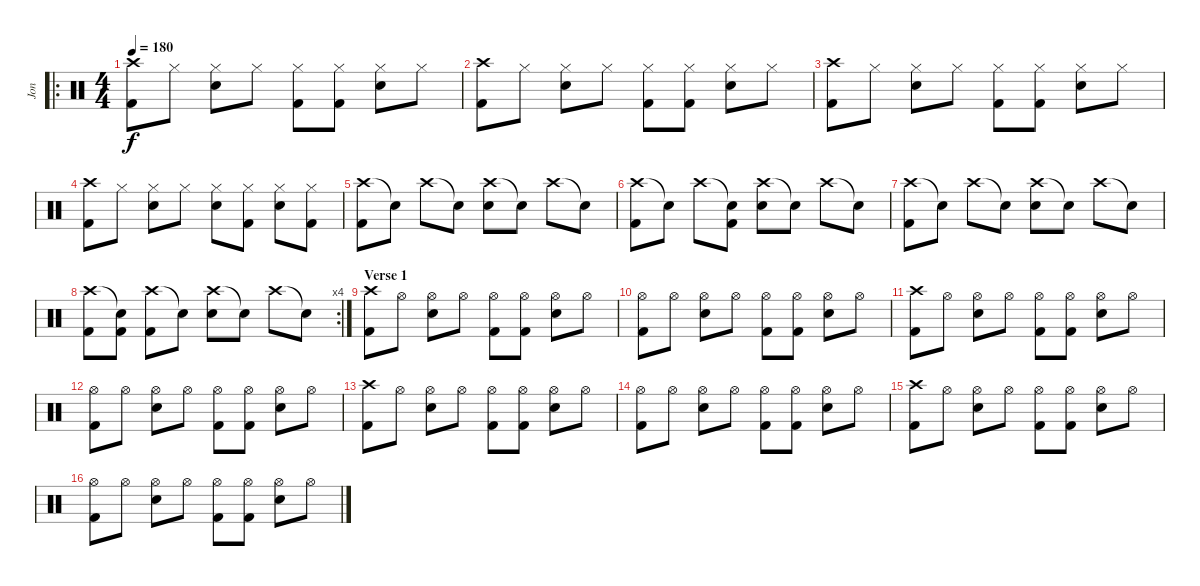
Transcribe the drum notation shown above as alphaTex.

\track ("Jon" "Jon") {instrument percussion}
\staff {score}
\articulation defaults
\ro
\ts (4 4)
\tempo 180
\clef neutral
\ks c
("Crash high (hit)" "Kick (hit) 2").8{dy f} "Hi-Hat (closed)".8 ("Hi-Hat (closed)" "Snare (hit) 2").8 "Hi-Hat (closed)".8 ("Hi-Hat (closed)" "Kick (hit) 2").8 ("Hi-Hat (closed)" "Kick (hit) 2").8 ("Hi-Hat (closed)" "Snare (hit) 2").8 "Hi-Hat (closed)".8 |
("Crash high (hit)" "Kick (hit) 2").8 "Hi-Hat (closed)".8 ("Hi-Hat (closed)" "Snare (hit) 2").8 "Hi-Hat (closed)".8 ("Hi-Hat (closed)" "Kick (hit) 2").8 ("Hi-Hat (closed)" "Kick (hit) 2").8 ("Hi-Hat (closed)" "Snare (hit) 2").8 "Hi-Hat (closed)".8 |
("Crash high (hit)" "Kick (hit) 2").8 "Hi-Hat (closed)".8 ("Hi-Hat (closed)" "Snare (hit) 2").8 "Hi-Hat (closed)".8 ("Hi-Hat (closed)" "Kick (hit) 2").8 ("Hi-Hat (closed)" "Kick (hit) 2").8 ("Hi-Hat (closed)" "Snare (hit) 2").8 "Hi-Hat (closed)".8 |
("Crash high (hit)" "Kick (hit) 2").8 "Hi-Hat (closed)".8 ("Hi-Hat (closed)" "Snare (hit) 2").8 "Hi-Hat (closed)".8 ("Hi-Hat (closed)" "Snare (hit) 2").8 ("Hi-Hat (closed)" "Kick (hit) 2").8 ("Hi-Hat (closed)" "Snare (hit) 2").8 ("Hi-Hat (closed)" "Kick (hit) 2").8 |
("Crash high (hit)" "Kick (hit) 2").8 "Snare (hit)"{t}.8 "Crash high (hit)".8 "Snare (hit)"{t}.8 ("Crash high (hit)" "Snare (hit) 2").8 "Snare (hit)"{t}.8 "Crash high (hit)".8 "Snare (hit)"{t}.8 |
("Crash high (hit)" "Kick (hit) 2").8 "Snare (hit)"{t}.8 "Crash high (hit)".8 ("Snare (hit)"{t} "Kick (hit) 2").8 ("Crash high (hit)" "Snare (hit) 2").8 "Snare (hit)"{t}.8 "Crash high (hit)".8 "Snare (hit)"{t}.8 |
("Crash high (hit)" "Kick (hit) 2").8 "Snare (hit)"{t}.8 "Crash high (hit)".8 "Snare (hit)"{t}.8 ("Crash high (hit)" "Snare (hit) 2").8 "Snare (hit)"{t}.8 "Crash high (hit)".8 "Snare (hit)"{t}.8 |
\rc 4
("Crash high (hit)" "Kick (hit) 2").8 ("Snare (hit)"{t} "Kick (hit) 2").8 ("Crash high (hit)" "Kick (hit) 2").8 "Snare (hit)"{t}.8 ("Crash high (hit)" "Snare (hit) 2").8 "Snare (hit)"{t}.8 "Crash high (hit)".8 "Snare (hit)"{t}.8 |
\section ("" "Verse 1")
("Crash high (hit)" "Kick (hit) 2").8 "Hi-Hat (open)".8 ("Hi-Hat (open)" "Snare (hit) 2").8 "Hi-Hat (open)".8 ("Hi-Hat (open)" "Kick (hit) 2").8 ("Hi-Hat (open)" "Kick (hit) 2").8 ("Hi-Hat (open)" "Snare (hit) 2").8 "Hi-Hat (open)".8 |
("Hi-Hat (open)" "Kick (hit) 2").8 "Hi-Hat (open)".8 ("Hi-Hat (open)" "Snare (hit) 2").8 "Hi-Hat (open)".8 ("Hi-Hat (open)" "Kick (hit) 2").8 ("Hi-Hat (open)" "Kick (hit) 2").8 ("Hi-Hat (open)" "Snare (hit) 2").8 "Hi-Hat (open)".8 |
("Crash high (hit)" "Kick (hit) 2").8 "Hi-Hat (open)".8 ("Hi-Hat (open)" "Snare (hit) 2").8 "Hi-Hat (open)".8 ("Hi-Hat (open)" "Kick (hit) 2").8 ("Hi-Hat (open)" "Kick (hit) 2").8 ("Hi-Hat (open)" "Snare (hit) 2").8 "Hi-Hat (open)".8 |
("Hi-Hat (open)" "Kick (hit) 2").8 "Hi-Hat (open)".8 ("Hi-Hat (open)" "Snare (hit) 2").8 "Hi-Hat (open)".8 ("Hi-Hat (open)" "Kick (hit) 2").8 ("Hi-Hat (open)" "Kick (hit) 2").8 ("Hi-Hat (open)" "Snare (hit) 2").8 "Hi-Hat (open)".8 |
("Crash high (hit)" "Kick (hit) 2").8 "Hi-Hat (open)".8 ("Hi-Hat (open)" "Snare (hit) 2").8 "Hi-Hat (open)".8 ("Hi-Hat (open)" "Kick (hit) 2").8 ("Hi-Hat (open)" "Kick (hit) 2").8 ("Hi-Hat (open)" "Snare (hit) 2").8 "Hi-Hat (open)".8 |
("Hi-Hat (open)" "Kick (hit) 2").8 "Hi-Hat (open)".8 ("Hi-Hat (open)" "Snare (hit) 2").8 "Hi-Hat (open)".8 ("Hi-Hat (open)" "Kick (hit) 2").8 ("Hi-Hat (open)" "Kick (hit) 2").8 ("Hi-Hat (open)" "Snare (hit) 2").8 "Hi-Hat (open)".8 |
("Crash high (hit)" "Kick (hit) 2").8 "Hi-Hat (open)".8 ("Hi-Hat (open)" "Snare (hit) 2").8 "Hi-Hat (open)".8 ("Hi-Hat (open)" "Kick (hit) 2").8 ("Hi-Hat (open)" "Kick (hit) 2").8 ("Hi-Hat (open)" "Snare (hit) 2").8 "Hi-Hat (open)".8 |
("Hi-Hat (open)" "Kick (hit) 2").8 "Hi-Hat (open)".8 ("Hi-Hat (open)" "Snare (hit) 2").8 "Hi-Hat (open)".8 ("Hi-Hat (open)" "Kick (hit) 2").8 ("Hi-Hat (open)" "Kick (hit) 2").8 ("Hi-Hat (open)" "Snare (hit) 2").8 "Hi-Hat (open)".8
